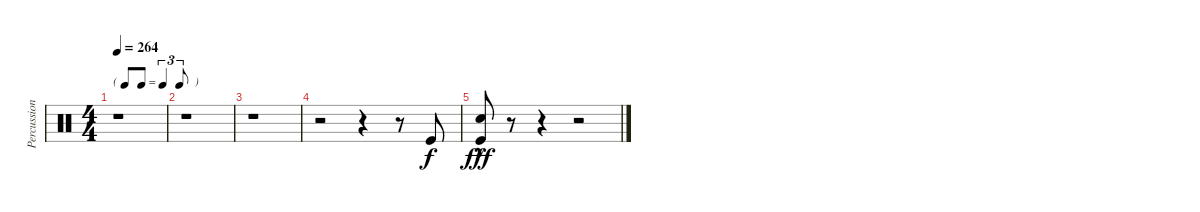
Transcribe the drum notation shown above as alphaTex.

\track ("Percussions" "Percussion") {instrument percussion}
\staff {score}
\articulation defaults
\ts (4 4)
\tf triplet8th
\tempo 264
\clef neutral
\ks c
r.1{dy f} |
r.1 |
r.1 |
r.2 r.4 r.8 "Kick (hit)".8 |
("Snare (hit) 2"{hac} "Kick (hit)").8{dy fff} r.8 r.4 r.2
